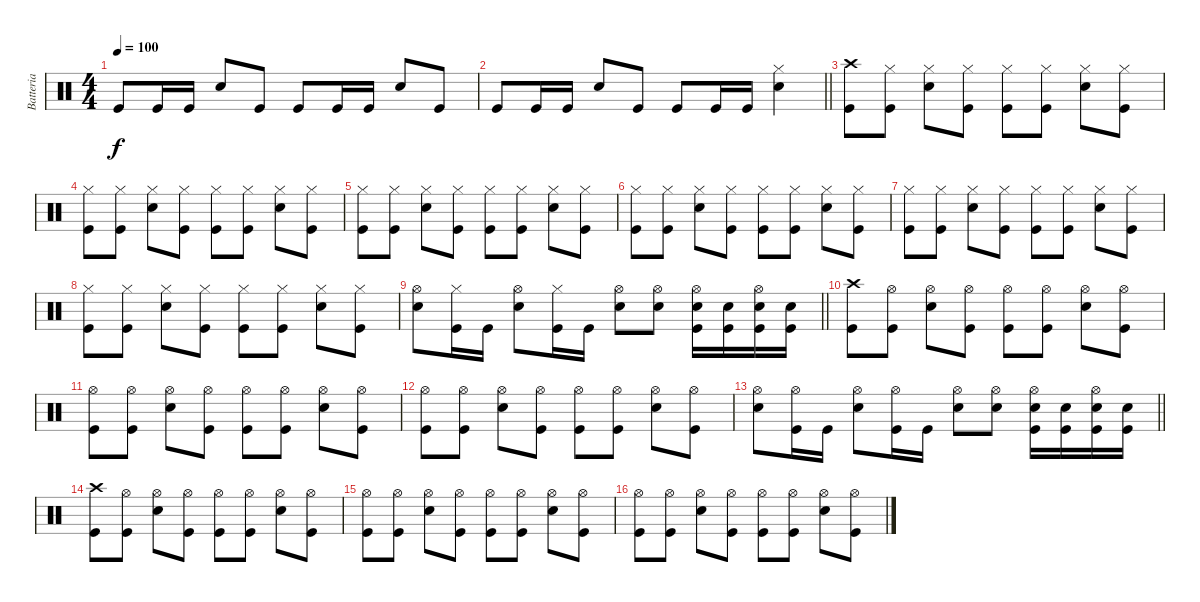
\track ("Batteria" "Batteria") {instrument percussion}
\staff {score}
\articulation defaults
\ts (4 4)
\tempo 100
\clef neutral
\ks c "Kick (hit)".8{dy f} "Kick (hit)".16 "Kick (hit)".16 "Snare (hit) 2".8 "Kick (hit)".8 "Kick (hit)".8 "Kick (hit)".16 "Kick (hit)".16 "Snare (hit) 2".8 "Kick (hit)".8
|
\barLineRight lightlight "Kick (hit)".8 "Kick (hit)".16 "Kick (hit)".16 "Snare (hit) 2".8 "Kick (hit)".8 "Kick (hit)".8 "Kick (hit)".16 "Kick (hit)".16
("Snare (hit) 2" "Hi-Hat (closed)").4 |
("Kick (hit)" "Crash high (hit)").8 ("Kick (hit)" "Hi-Hat (closed)").8 ("Snare (hit) 2" "Hi-Hat (closed)").8 ("Kick (hit)" "Hi-Hat (closed)").8 ("Kick (hit)" "Hi-Hat (closed)").8 ("Kick (hit)" "Hi-Hat (closed)").8 ("Snare (hit) 2" "Hi-Hat (closed)").8 ("Kick (hit)" "Hi-Hat (closed)").8 |
("Kick (hit)" "Hi-Hat (closed)").8 ("Kick (hit)" "Hi-Hat (closed)").8 ("Snare (hit) 2" "Hi-Hat (closed)").8 ("Kick (hit)" "Hi-Hat (closed)").8 ("Kick (hit)" "Hi-Hat (closed)").8 ("Kick (hit)" "Hi-Hat (closed)").8 ("Snare (hit) 2" "Hi-Hat (closed)").8 ("Kick (hit)" "Hi-Hat (closed)").8 |
("Kick (hit)" "Hi-Hat (closed)").8 ("Kick (hit)" "Hi-Hat (closed)").8 ("Snare (hit) 2" "Hi-Hat (closed)").8 ("Kick (hit)" "Hi-Hat (closed)").8 ("Kick (hit)" "Hi-Hat (closed)").8 ("Kick (hit)" "Hi-Hat (closed)").8 ("Snare (hit) 2" "Hi-Hat (closed)").8 ("Kick (hit)" "Hi-Hat (closed)").8 |
("Kick (hit)" "Hi-Hat (closed)").8 ("Kick (hit)" "Hi-Hat (closed)").8 ("Snare (hit) 2" "Hi-Hat (closed)").8 ("Kick (hit)" "Hi-Hat (closed)").8 ("Kick (hit)" "Hi-Hat (closed)").8 ("Kick (hit)" "Hi-Hat (closed)").8 ("Snare (hit) 2" "Hi-Hat (closed)").8 ("Kick (hit)" "Hi-Hat (closed)").8 |
("Kick (hit)" "Hi-Hat (closed)").8 ("Kick (hit)" "Hi-Hat (closed)").8 ("Snare (hit) 2" "Hi-Hat (closed)").8 ("Kick (hit)" "Hi-Hat (closed)").8 ("Kick (hit)" "Hi-Hat (closed)").8 ("Kick (hit)" "Hi-Hat (closed)").8 ("Snare (hit) 2" "Hi-Hat (closed)").8 ("Kick (hit)" "Hi-Hat (closed)").8 |
("Kick (hit)" "Hi-Hat (closed)").8 ("Kick (hit)" "Hi-Hat (closed)").8 ("Snare (hit) 2" "Hi-Hat (closed)").8 ("Kick (hit)" "Hi-Hat (closed)").8 ("Kick (hit)" "Hi-Hat (closed)").8 ("Kick (hit)" "Hi-Hat (closed)").8 ("Snare (hit) 2" "Hi-Hat (closed)").8 ("Kick (hit)" "Hi-Hat (closed)").8 |
\barLineRight lightlight
("Snare (hit) 2" "Hi-Hat (open)").8 ("Kick (hit)" "Hi-Hat (closed)").16 "Kick (hit)".16 ("Snare (hit) 2" "Hi-Hat (open)").8 ("Kick (hit)" "Hi-Hat (closed)").16 "Kick (hit)".16 ("Snare (hit) 2" "Hi-Hat (open)").8 ("Snare (hit) 2" "Hi-Hat (open)").8 ("Kick (hit)" "Hi-Hat (open)" "Snare (hit) 2").16 ("Kick (hit)" "Snare (hit) 2").16 ("Kick (hit)" "Hi-Hat (open)" "Snare (hit) 2").16 ("Kick (hit)" "Snare (hit) 2").16 |
("Kick (hit)" "Crash high (hit)").8 ("Kick (hit)" "Hi-Hat (open)").8 ("Snare (hit) 2" "Hi-Hat (open)").8 ("Kick (hit)" "Hi-Hat (open)").8 ("Kick (hit)" "Hi-Hat (open)").8 ("Kick (hit)" "Hi-Hat (open)").8 ("Snare (hit) 2" "Hi-Hat (open)").8 ("Kick (hit)" "Hi-Hat (open)").8 |
("Kick (hit)" "Hi-Hat (open)").8 ("Kick (hit)" "Hi-Hat (open)").8 ("Snare (hit) 2" "Hi-Hat (open)").8 ("Kick (hit)" "Hi-Hat (open)").8 ("Kick (hit)" "Hi-Hat (open)").8 ("Kick (hit)" "Hi-Hat (open)").8 ("Snare (hit) 2" "Hi-Hat (open)").8 ("Kick (hit)" "Hi-Hat (open)").8 |
("Kick (hit)" "Hi-Hat (open)").8 ("Kick (hit)" "Hi-Hat (open)").8 ("Snare (hit) 2" "Hi-Hat (open)").8 ("Kick (hit)" "Hi-Hat (open)").8 ("Kick (hit)" "Hi-Hat (open)").8 ("Kick (hit)" "Hi-Hat (open)").8 ("Snare (hit) 2" "Hi-Hat (open)").8 ("Kick (hit)" "Hi-Hat (open)").8 |
\barLineRight lightlight
("Snare (hit) 2" "Hi-Hat (open)").8 ("Kick (hit)" "Hi-Hat (open)").16 "Kick (hit)".16 ("Snare (hit) 2" "Hi-Hat (open)").8 ("Kick (hit)" "Hi-Hat (open)").16 "Kick (hit)".16 ("Snare (hit) 2" "Hi-Hat (open)").8 ("Snare (hit) 2" "Hi-Hat (open)").8 ("Kick (hit)" "Hi-Hat (open)" "Snare (hit) 2").16 ("Kick (hit)" "Snare (hit) 2").16 ("Kick (hit)" "Hi-Hat (open)" "Snare (hit) 2").16 ("Kick (hit)" "Snare (hit) 2").16 |
("Kick (hit)" "Crash high (hit)").8 ("Kick (hit)" "Hi-Hat (open)").8 ("Snare (hit) 2" "Hi-Hat (open)").8 ("Kick (hit)" "Hi-Hat (open)").8 ("Kick (hit)" "Hi-Hat (open)").8 ("Kick (hit)" "Hi-Hat (open)").8 ("Snare (hit) 2" "Hi-Hat (open)").8 ("Kick (hit)" "Hi-Hat (open)").8 |
("Kick (hit)" "Hi-Hat (open)").8 ("Kick (hit)" "Hi-Hat (open)").8 ("Snare (hit) 2" "Hi-Hat (open)").8 ("Kick (hit)" "Hi-Hat (open)").8 ("Kick (hit)" "Hi-Hat (open)").8 ("Kick (hit)" "Hi-Hat (open)").8 ("Snare (hit) 2" "Hi-Hat (open)").8 ("Kick (hit)" "Hi-Hat (open)").8 |
("Kick (hit)" "Hi-Hat (open)").8 ("Kick (hit)" "Hi-Hat (open)").8 ("Snare (hit) 2" "Hi-Hat (open)").8 ("Kick (hit)" "Hi-Hat (open)").8 ("Kick (hit)" "Hi-Hat (open)").8 ("Kick (hit)" "Hi-Hat (open)").8 ("Snare (hit) 2" "Hi-Hat (open)").8 ("Kick (hit)" "Hi-Hat (open)").8
